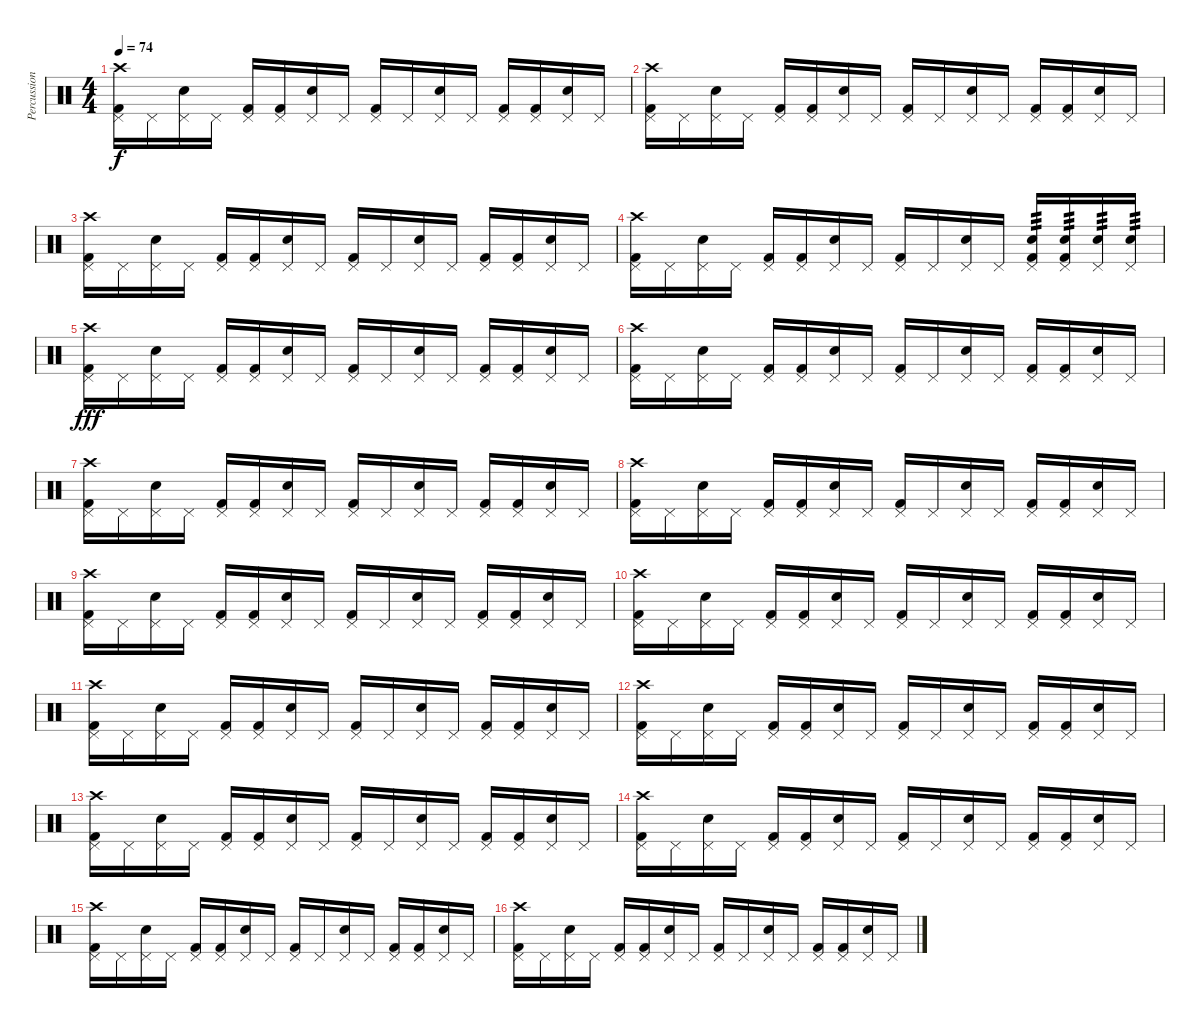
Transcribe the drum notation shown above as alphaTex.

\track ("Percussion" "Percussion") {instrument percussion}
\staff {score}
\articulation defaults
\ts (4 4)
\tempo 74
\clef neutral
\ks c
("Crash high (hit)" "Pedal Hi-Hat (hit)" "Kick (hit) 2").16{dy f} "Pedal Hi-Hat (hit)".16 ("Pedal Hi-Hat (hit)" "Electric Snare (hit)").16 "Pedal Hi-Hat (hit)".16 ("Pedal Hi-Hat (hit)" "Kick (hit) 2").16 ("Pedal Hi-Hat (hit)" "Kick (hit) 2").16 ("Pedal Hi-Hat (hit)" "Electric Snare (hit)").16 "Pedal Hi-Hat (hit)".16 ("Pedal Hi-Hat (hit)" "Kick (hit) 2").16 "Pedal Hi-Hat (hit)".16 ("Pedal Hi-Hat (hit)" "Electric Snare (hit)").16 "Pedal Hi-Hat (hit)".16 ("Pedal Hi-Hat (hit)" "Kick (hit) 2").16 ("Pedal Hi-Hat (hit)" "Kick (hit) 2").16 ("Pedal Hi-Hat (hit)" "Electric Snare (hit)").16 "Pedal Hi-Hat (hit)".16 |
("Crash high (hit)" "Pedal Hi-Hat (hit)" "Kick (hit) 2").16 "Pedal Hi-Hat (hit)".16 ("Pedal Hi-Hat (hit)" "Electric Snare (hit)").16 "Pedal Hi-Hat (hit)".16 ("Pedal Hi-Hat (hit)" "Kick (hit) 2").16 ("Pedal Hi-Hat (hit)" "Kick (hit) 2").16 ("Pedal Hi-Hat (hit)" "Electric Snare (hit)").16 "Pedal Hi-Hat (hit)".16 ("Pedal Hi-Hat (hit)" "Kick (hit) 2").16 "Pedal Hi-Hat (hit)".16 ("Pedal Hi-Hat (hit)" "Electric Snare (hit)").16 "Pedal Hi-Hat (hit)".16 ("Pedal Hi-Hat (hit)" "Kick (hit) 2").16 ("Pedal Hi-Hat (hit)" "Kick (hit) 2").16 ("Pedal Hi-Hat (hit)" "Electric Snare (hit)").16 "Pedal Hi-Hat (hit)".16 |
("Crash high (hit)" "Pedal Hi-Hat (hit)" "Kick (hit) 2").16 "Pedal Hi-Hat (hit)".16 ("Pedal Hi-Hat (hit)" "Electric Snare (hit)").16 "Pedal Hi-Hat (hit)".16 ("Pedal Hi-Hat (hit)" "Kick (hit) 2").16 ("Pedal Hi-Hat (hit)" "Kick (hit) 2").16 ("Pedal Hi-Hat (hit)" "Electric Snare (hit)").16 "Pedal Hi-Hat (hit)".16 ("Pedal Hi-Hat (hit)" "Kick (hit) 2").16 "Pedal Hi-Hat (hit)".16 ("Pedal Hi-Hat (hit)" "Electric Snare (hit)").16 "Pedal Hi-Hat (hit)".16 ("Pedal Hi-Hat (hit)" "Kick (hit) 2").16 ("Pedal Hi-Hat (hit)" "Kick (hit) 2").16 ("Pedal Hi-Hat (hit)" "Electric Snare (hit)").16 "Pedal Hi-Hat (hit)".16 |
("Crash high (hit)" "Pedal Hi-Hat (hit)" "Kick (hit) 2").16 "Pedal Hi-Hat (hit)".16 ("Pedal Hi-Hat (hit)" "Electric Snare (hit)").16 "Pedal Hi-Hat (hit)".16 ("Pedal Hi-Hat (hit)" "Kick (hit) 2").16 ("Pedal Hi-Hat (hit)" "Kick (hit) 2").16 ("Pedal Hi-Hat (hit)" "Electric Snare (hit)").16 "Pedal Hi-Hat (hit)".16 ("Pedal Hi-Hat (hit)" "Kick (hit) 2").16 "Pedal Hi-Hat (hit)".16 ("Pedal Hi-Hat (hit)" "Electric Snare (hit)").16 "Pedal Hi-Hat (hit)".16 ("Pedal Hi-Hat (hit)" "Electric Snare (hit)" "Kick (hit) 2").16{tp 3} ("Pedal Hi-Hat (hit)" "Electric Snare (hit)" "Kick (hit) 2").16{tp 3} ("Pedal Hi-Hat (hit)" "Electric Snare (hit)").16{tp 3} ("Pedal Hi-Hat (hit)" "Electric Snare (hit)").16{tp 3} |
("Crash high (hit)" "Pedal Hi-Hat (hit)" "Kick (hit) 2").16{dy fff} "Pedal Hi-Hat (hit)".16 ("Pedal Hi-Hat (hit)" "Electric Snare (hit)").16 "Pedal Hi-Hat (hit)".16 ("Pedal Hi-Hat (hit)" "Kick (hit) 2").16 ("Pedal Hi-Hat (hit)" "Kick (hit) 2").16 ("Pedal Hi-Hat (hit)" "Electric Snare (hit)").16 "Pedal Hi-Hat (hit)".16 ("Pedal Hi-Hat (hit)" "Kick (hit) 2").16 "Pedal Hi-Hat (hit)".16 ("Pedal Hi-Hat (hit)" "Electric Snare (hit)").16 "Pedal Hi-Hat (hit)".16 ("Pedal Hi-Hat (hit)" "Kick (hit) 2").16 ("Pedal Hi-Hat (hit)" "Kick (hit) 2").16 ("Pedal Hi-Hat (hit)" "Electric Snare (hit)").16 "Pedal Hi-Hat (hit)".16 |
("Crash high (hit)" "Pedal Hi-Hat (hit)" "Kick (hit) 2").16 "Pedal Hi-Hat (hit)".16 ("Pedal Hi-Hat (hit)" "Electric Snare (hit)").16 "Pedal Hi-Hat (hit)".16 ("Pedal Hi-Hat (hit)" "Kick (hit) 2").16 ("Pedal Hi-Hat (hit)" "Kick (hit) 2").16 ("Pedal Hi-Hat (hit)" "Electric Snare (hit)").16 "Pedal Hi-Hat (hit)".16 ("Pedal Hi-Hat (hit)" "Kick (hit) 2").16 "Pedal Hi-Hat (hit)".16 ("Pedal Hi-Hat (hit)" "Electric Snare (hit)").16 "Pedal Hi-Hat (hit)".16 ("Pedal Hi-Hat (hit)" "Kick (hit) 2").16 ("Pedal Hi-Hat (hit)" "Kick (hit) 2").16 ("Pedal Hi-Hat (hit)" "Electric Snare (hit)").16 "Pedal Hi-Hat (hit)".16 |
("Crash high (hit)" "Pedal Hi-Hat (hit)" "Kick (hit) 2").16 "Pedal Hi-Hat (hit)".16 ("Pedal Hi-Hat (hit)" "Electric Snare (hit)").16 "Pedal Hi-Hat (hit)".16 ("Pedal Hi-Hat (hit)" "Kick (hit) 2").16 ("Pedal Hi-Hat (hit)" "Kick (hit) 2").16 ("Pedal Hi-Hat (hit)" "Electric Snare (hit)").16 "Pedal Hi-Hat (hit)".16 ("Pedal Hi-Hat (hit)" "Kick (hit) 2").16 "Pedal Hi-Hat (hit)".16 ("Pedal Hi-Hat (hit)" "Electric Snare (hit)").16 "Pedal Hi-Hat (hit)".16 ("Pedal Hi-Hat (hit)" "Kick (hit) 2").16 ("Pedal Hi-Hat (hit)" "Kick (hit) 2").16 ("Pedal Hi-Hat (hit)" "Electric Snare (hit)").16 "Pedal Hi-Hat (hit)".16 |
("Crash high (hit)" "Pedal Hi-Hat (hit)" "Kick (hit) 2").16 "Pedal Hi-Hat (hit)".16 ("Pedal Hi-Hat (hit)" "Electric Snare (hit)").16 "Pedal Hi-Hat (hit)".16 ("Pedal Hi-Hat (hit)" "Kick (hit) 2").16 ("Pedal Hi-Hat (hit)" "Kick (hit) 2").16 ("Pedal Hi-Hat (hit)" "Electric Snare (hit)").16 "Pedal Hi-Hat (hit)".16 ("Pedal Hi-Hat (hit)" "Kick (hit) 2").16 "Pedal Hi-Hat (hit)".16 ("Pedal Hi-Hat (hit)" "Electric Snare (hit)").16 "Pedal Hi-Hat (hit)".16 ("Pedal Hi-Hat (hit)" "Kick (hit) 2").16 ("Pedal Hi-Hat (hit)" "Kick (hit) 2").16 ("Pedal Hi-Hat (hit)" "Electric Snare (hit)").16 "Pedal Hi-Hat (hit)".16 |
("Crash high (hit)" "Pedal Hi-Hat (hit)" "Kick (hit) 2").16 "Pedal Hi-Hat (hit)".16 ("Pedal Hi-Hat (hit)" "Electric Snare (hit)").16 "Pedal Hi-Hat (hit)".16 ("Pedal Hi-Hat (hit)" "Kick (hit) 2").16 ("Pedal Hi-Hat (hit)" "Kick (hit) 2").16 ("Pedal Hi-Hat (hit)" "Electric Snare (hit)").16 "Pedal Hi-Hat (hit)".16 ("Pedal Hi-Hat (hit)" "Kick (hit) 2").16 "Pedal Hi-Hat (hit)".16 ("Pedal Hi-Hat (hit)" "Electric Snare (hit)").16 "Pedal Hi-Hat (hit)".16 ("Pedal Hi-Hat (hit)" "Kick (hit) 2").16 ("Pedal Hi-Hat (hit)" "Kick (hit) 2").16 ("Pedal Hi-Hat (hit)" "Electric Snare (hit)").16 "Pedal Hi-Hat (hit)".16 |
("Crash high (hit)" "Pedal Hi-Hat (hit)" "Kick (hit) 2").16 "Pedal Hi-Hat (hit)".16 ("Pedal Hi-Hat (hit)" "Electric Snare (hit)").16 "Pedal Hi-Hat (hit)".16 ("Pedal Hi-Hat (hit)" "Kick (hit) 2").16 ("Pedal Hi-Hat (hit)" "Kick (hit) 2").16 ("Pedal Hi-Hat (hit)" "Electric Snare (hit)").16 "Pedal Hi-Hat (hit)".16 ("Pedal Hi-Hat (hit)" "Kick (hit) 2").16 "Pedal Hi-Hat (hit)".16 ("Pedal Hi-Hat (hit)" "Electric Snare (hit)").16 "Pedal Hi-Hat (hit)".16 ("Pedal Hi-Hat (hit)" "Kick (hit) 2").16 ("Pedal Hi-Hat (hit)" "Kick (hit) 2").16 ("Pedal Hi-Hat (hit)" "Electric Snare (hit)").16 "Pedal Hi-Hat (hit)".16 |
("Crash high (hit)" "Pedal Hi-Hat (hit)" "Kick (hit) 2").16 "Pedal Hi-Hat (hit)".16 ("Pedal Hi-Hat (hit)" "Electric Snare (hit)").16 "Pedal Hi-Hat (hit)".16 ("Pedal Hi-Hat (hit)" "Kick (hit) 2").16 ("Pedal Hi-Hat (hit)" "Kick (hit) 2").16 ("Pedal Hi-Hat (hit)" "Electric Snare (hit)").16 "Pedal Hi-Hat (hit)".16 ("Pedal Hi-Hat (hit)" "Kick (hit) 2").16 "Pedal Hi-Hat (hit)".16 ("Pedal Hi-Hat (hit)" "Electric Snare (hit)").16 "Pedal Hi-Hat (hit)".16 ("Pedal Hi-Hat (hit)" "Kick (hit) 2").16 ("Pedal Hi-Hat (hit)" "Kick (hit) 2").16 ("Pedal Hi-Hat (hit)" "Electric Snare (hit)").16 "Pedal Hi-Hat (hit)".16 |
("Crash high (hit)" "Pedal Hi-Hat (hit)" "Kick (hit) 2").16 "Pedal Hi-Hat (hit)".16 ("Pedal Hi-Hat (hit)" "Electric Snare (hit)").16 "Pedal Hi-Hat (hit)".16 ("Pedal Hi-Hat (hit)" "Kick (hit) 2").16 ("Pedal Hi-Hat (hit)" "Kick (hit) 2").16 ("Pedal Hi-Hat (hit)" "Electric Snare (hit)").16 "Pedal Hi-Hat (hit)".16 ("Pedal Hi-Hat (hit)" "Kick (hit) 2").16 "Pedal Hi-Hat (hit)".16 ("Pedal Hi-Hat (hit)" "Electric Snare (hit)").16 "Pedal Hi-Hat (hit)".16 ("Pedal Hi-Hat (hit)" "Kick (hit) 2").16 ("Pedal Hi-Hat (hit)" "Kick (hit) 2").16 ("Pedal Hi-Hat (hit)" "Electric Snare (hit)").16 "Pedal Hi-Hat (hit)".16 |
("Crash high (hit)" "Pedal Hi-Hat (hit)" "Kick (hit) 2").16 "Pedal Hi-Hat (hit)".16 ("Pedal Hi-Hat (hit)" "Electric Snare (hit)").16 "Pedal Hi-Hat (hit)".16 ("Pedal Hi-Hat (hit)" "Kick (hit) 2").16 ("Pedal Hi-Hat (hit)" "Kick (hit) 2").16 ("Pedal Hi-Hat (hit)" "Electric Snare (hit)").16 "Pedal Hi-Hat (hit)".16 ("Pedal Hi-Hat (hit)" "Kick (hit) 2").16 "Pedal Hi-Hat (hit)".16 ("Pedal Hi-Hat (hit)" "Electric Snare (hit)").16 "Pedal Hi-Hat (hit)".16 ("Pedal Hi-Hat (hit)" "Kick (hit) 2").16 ("Pedal Hi-Hat (hit)" "Kick (hit) 2").16 ("Pedal Hi-Hat (hit)" "Electric Snare (hit)").16 "Pedal Hi-Hat (hit)".16 |
("Crash high (hit)" "Pedal Hi-Hat (hit)" "Kick (hit) 2").16 "Pedal Hi-Hat (hit)".16 ("Pedal Hi-Hat (hit)" "Electric Snare (hit)").16 "Pedal Hi-Hat (hit)".16 ("Pedal Hi-Hat (hit)" "Kick (hit) 2").16 ("Pedal Hi-Hat (hit)" "Kick (hit) 2").16 ("Pedal Hi-Hat (hit)" "Electric Snare (hit)").16 "Pedal Hi-Hat (hit)".16 ("Pedal Hi-Hat (hit)" "Kick (hit) 2").16 "Pedal Hi-Hat (hit)".16 ("Pedal Hi-Hat (hit)" "Electric Snare (hit)").16 "Pedal Hi-Hat (hit)".16 ("Pedal Hi-Hat (hit)" "Kick (hit) 2").16 ("Pedal Hi-Hat (hit)" "Kick (hit) 2").16 ("Pedal Hi-Hat (hit)" "Electric Snare (hit)").16 "Pedal Hi-Hat (hit)".16 |
("Crash high (hit)" "Pedal Hi-Hat (hit)" "Kick (hit) 2").16 "Pedal Hi-Hat (hit)".16 ("Pedal Hi-Hat (hit)" "Electric Snare (hit)").16 "Pedal Hi-Hat (hit)".16 ("Pedal Hi-Hat (hit)" "Kick (hit) 2").16 ("Pedal Hi-Hat (hit)" "Kick (hit) 2").16 ("Pedal Hi-Hat (hit)" "Electric Snare (hit)").16 "Pedal Hi-Hat (hit)".16 ("Pedal Hi-Hat (hit)" "Kick (hit) 2").16 "Pedal Hi-Hat (hit)".16 ("Pedal Hi-Hat (hit)" "Electric Snare (hit)").16 "Pedal Hi-Hat (hit)".16 ("Pedal Hi-Hat (hit)" "Kick (hit) 2").16 ("Pedal Hi-Hat (hit)" "Kick (hit) 2").16 ("Pedal Hi-Hat (hit)" "Electric Snare (hit)").16 "Pedal Hi-Hat (hit)".16 |
("Crash high (hit)" "Pedal Hi-Hat (hit)" "Kick (hit) 2").16 "Pedal Hi-Hat (hit)".16 ("Pedal Hi-Hat (hit)" "Electric Snare (hit)").16 "Pedal Hi-Hat (hit)".16 ("Pedal Hi-Hat (hit)" "Kick (hit) 2").16 ("Pedal Hi-Hat (hit)" "Kick (hit) 2").16 ("Pedal Hi-Hat (hit)" "Electric Snare (hit)").16 "Pedal Hi-Hat (hit)".16 ("Pedal Hi-Hat (hit)" "Kick (hit) 2").16 "Pedal Hi-Hat (hit)".16 ("Pedal Hi-Hat (hit)" "Electric Snare (hit)").16 "Pedal Hi-Hat (hit)".16 ("Pedal Hi-Hat (hit)" "Kick (hit) 2").16 ("Pedal Hi-Hat (hit)" "Kick (hit) 2").16 ("Pedal Hi-Hat (hit)" "Electric Snare (hit)").16 "Pedal Hi-Hat (hit)".16
